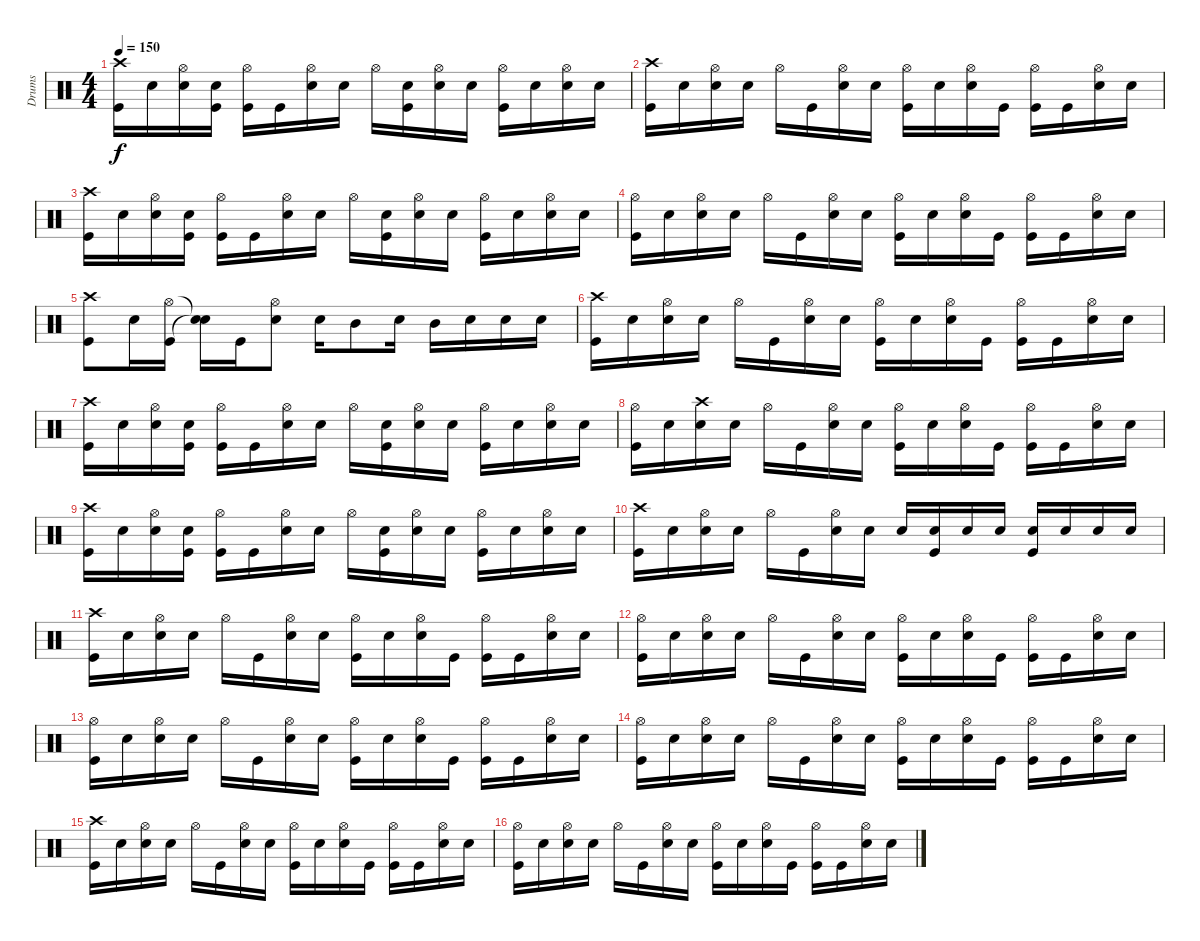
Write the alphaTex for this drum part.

\track ("Drums" "Drums") {instrument percussion}
\staff {score}
\articulation defaults
\ts (4 4)
\tempo 150
\clef neutral
\ks c
("Crash high (hit)" "Kick (hit)").16{dy f} "Snare (hit)".16 ("Hi-Hat (open)" "Snare (hit) 2").16 ("Snare (hit)" "Kick (hit)").16 ("Hi-Hat (open)" "Kick (hit)").16 "Kick (hit)".16 ("Hi-Hat (open)" "Snare (hit) 2").16 "Snare (hit)".16 "Hi-Hat (open)".16 ("Snare (hit)" "Kick (hit)").16 ("Hi-Hat (open)" "Snare (hit) 2").16 "Snare (hit)".16 ("Hi-Hat (open)" "Kick (hit)").16 "Snare (hit)".16 ("Hi-Hat (open)" "Snare (hit) 2").16 "Snare (hit)".16 |
("Crash high (hit)" "Kick (hit)").16 "Snare (hit)".16 ("Hi-Hat (open)" "Snare (hit) 2").16 "Snare (hit)".16 "Hi-Hat (open)".16 "Kick (hit)".16 ("Hi-Hat (open)" "Snare (hit) 2").16 "Snare (hit)".16 ("Hi-Hat (open)" "Kick (hit)").16 "Snare (hit)".16 ("Hi-Hat (open)" "Snare (hit) 2").16 "Kick (hit)".16 ("Hi-Hat (open)" "Kick (hit)").16 "Kick (hit)".16 ("Hi-Hat (open)" "Snare (hit) 2").16 "Snare (hit)".16 |
("Crash high (hit)" "Kick (hit)").16 "Snare (hit)".16 ("Hi-Hat (open)" "Snare (hit) 2").16 ("Snare (hit)" "Kick (hit)").16 ("Hi-Hat (open)" "Kick (hit)").16 "Kick (hit)".16 ("Hi-Hat (open)" "Snare (hit) 2").16 "Snare (hit)".16 "Hi-Hat (open)".16 ("Snare (hit)" "Kick (hit)").16 ("Hi-Hat (open)" "Snare (hit) 2").16 "Snare (hit)".16 ("Hi-Hat (open)" "Kick (hit)").16 "Snare (hit)".16 ("Hi-Hat (open)" "Snare (hit) 2").16 "Snare (hit)".16 |
("Hi-Hat (open)" "Kick (hit)").16 "Snare (hit)".16 ("Hi-Hat (open)" "Snare (hit) 2").16 "Snare (hit)".16 "Hi-Hat (open)".16 "Kick (hit)".16 ("Hi-Hat (open)" "Snare (hit) 2").16 "Snare (hit)".16 ("Hi-Hat (open)" "Kick (hit)").16 "Snare (hit)".16 ("Hi-Hat (open)" "Snare (hit) 2").16 "Kick (hit)".16 ("Hi-Hat (open)" "Kick (hit)").16 "Kick (hit)".16 ("Hi-Hat (open)" "Snare (hit) 2").16 "Snare (hit)".16 |
("Crash high (hit)" "Kick (hit)").8 "Snare (hit) 2".16 ("Hi-Hat (open)" "Kick (hit)").16 ("Snare (hit)"{t} "Snare (hit)"{t}).16 "Kick (hit)".16 ("Hi-Hat (open)" "Snare (hit) 2").8 "Snare (hit) 2".16 "Mid Tom (hit)".8 "Snare (hit) 2".16 "Mid Tom (hit)".16 "Snare (hit) 2".16 "Snare (hit) 2".16 "Snare (hit) 2".16 |
("Crash high (hit)" "Kick (hit)").16 "Snare (hit)".16 ("Hi-Hat (open)" "Snare (hit) 2").16 "Snare (hit)".16 "Hi-Hat (open)".16 "Kick (hit)".16 ("Hi-Hat (open)" "Snare (hit) 2").16 "Snare (hit)".16 ("Hi-Hat (open)" "Kick (hit)").16 "Snare (hit)".16 ("Hi-Hat (open)" "Snare (hit) 2").16 "Kick (hit)".16 ("Hi-Hat (open)" "Kick (hit)").16 "Kick (hit)".16 ("Hi-Hat (open)" "Snare (hit) 2").16 "Snare (hit)".16 |
("Crash high (hit)" "Kick (hit)").16 "Snare (hit)".16 ("Hi-Hat (open)" "Snare (hit) 2").16 ("Snare (hit)" "Kick (hit)").16 ("Hi-Hat (open)" "Kick (hit)").16 "Kick (hit)".16 ("Hi-Hat (open)" "Snare (hit) 2").16 "Snare (hit)".16 "Hi-Hat (open)".16 ("Snare (hit)" "Kick (hit)").16 ("Hi-Hat (open)" "Snare (hit) 2").16 "Snare (hit)".16 ("Hi-Hat (open)" "Kick (hit)").16 "Snare (hit)".16 ("Hi-Hat (open)" "Snare (hit) 2").16 "Snare (hit)".16 |
("Hi-Hat (open)" "Kick (hit)").16 "Snare (hit)".16 ("Crash high (hit)" "Snare (hit) 2").16 "Snare (hit)".16 "Hi-Hat (open)".16 "Kick (hit)".16 ("Hi-Hat (open)" "Snare (hit) 2").16 "Snare (hit)".16 ("Hi-Hat (open)" "Kick (hit)").16 "Snare (hit)".16 ("Hi-Hat (open)" "Snare (hit) 2").16 "Kick (hit)".16 ("Hi-Hat (open)" "Kick (hit)").16 "Kick (hit)".16 ("Hi-Hat (open)" "Snare (hit) 2").16 "Snare (hit)".16 |
("Crash high (hit)" "Kick (hit)").16 "Snare (hit)".16 ("Hi-Hat (open)" "Snare (hit) 2").16 ("Snare (hit)" "Kick (hit)").16 ("Hi-Hat (open)" "Kick (hit)").16 "Kick (hit)".16 ("Hi-Hat (open)" "Snare (hit) 2").16 "Snare (hit)".16 "Hi-Hat (open)".16 ("Snare (hit)" "Kick (hit)").16 ("Hi-Hat (open)" "Snare (hit) 2").16 "Snare (hit)".16 ("Hi-Hat (open)" "Kick (hit)").16 "Snare (hit)".16 ("Hi-Hat (open)" "Snare (hit) 2").16 "Snare (hit)".16 |
("Crash high (hit)" "Kick (hit)").16 "Snare (hit)".16 ("Hi-Hat (open)" "Snare (hit) 2").16 "Snare (hit)".16 "Hi-Hat (open)".16 "Kick (hit)".16 ("Hi-Hat (open)" "Snare (hit) 2").16 "Snare (hit)".16 "Snare (hit) 2".16 ("Snare (hit)" "Kick (hit)").16 "Snare (hit) 2".16 "Snare (hit)".16 ("Snare (hit) 2" "Kick (hit)").16 "Snare (hit)".16 "Snare (hit) 2".16 "Snare (hit)".16 |
("Crash high (hit)" "Kick (hit)").16 "Snare (hit)".16 ("Hi-Hat (open)" "Snare (hit) 2").16 "Snare (hit)".16 "Hi-Hat (open)".16 "Kick (hit)".16 ("Hi-Hat (open)" "Snare (hit) 2").16 "Snare (hit)".16 ("Hi-Hat (open)" "Kick (hit)").16 "Snare (hit)".16 ("Hi-Hat (open)" "Snare (hit) 2").16 "Kick (hit)".16 ("Hi-Hat (open)" "Kick (hit)").16 "Kick (hit)".16 ("Hi-Hat (open)" "Snare (hit) 2").16 "Snare (hit)".16 |
("Hi-Hat (open)" "Kick (hit)").16 "Snare (hit)".16 ("Hi-Hat (open)" "Snare (hit) 2").16 "Snare (hit)".16 "Hi-Hat (open)".16 "Kick (hit)".16 ("Hi-Hat (open)" "Snare (hit) 2").16 "Snare (hit)".16 ("Hi-Hat (open)" "Kick (hit)").16 "Snare (hit)".16 ("Hi-Hat (open)" "Snare (hit) 2").16 "Kick (hit)".16 ("Hi-Hat (open)" "Kick (hit)").16 "Kick (hit)".16 ("Hi-Hat (open)" "Snare (hit) 2").16 "Snare (hit)".16 |
("Hi-Hat (open)" "Kick (hit)").16 "Snare (hit)".16 ("Hi-Hat (open)" "Snare (hit) 2").16 "Snare (hit)".16 "Hi-Hat (open)".16 "Kick (hit)".16 ("Hi-Hat (open)" "Snare (hit) 2").16 "Snare (hit)".16 ("Hi-Hat (open)" "Kick (hit)").16 "Snare (hit)".16 ("Hi-Hat (open)" "Snare (hit) 2").16 "Kick (hit)".16 ("Hi-Hat (open)" "Kick (hit)").16 "Kick (hit)".16 ("Hi-Hat (open)" "Snare (hit) 2").16 "Snare (hit)".16 |
("Hi-Hat (open)" "Kick (hit)").16 "Snare (hit)".16 ("Hi-Hat (open)" "Snare (hit) 2").16 "Snare (hit)".16 "Hi-Hat (open)".16 "Kick (hit)".16 ("Hi-Hat (open)" "Snare (hit) 2").16 "Snare (hit)".16 ("Hi-Hat (open)" "Kick (hit)").16 "Snare (hit)".16 ("Hi-Hat (open)" "Snare (hit) 2").16 "Kick (hit)".16 ("Hi-Hat (open)" "Kick (hit)").16 "Kick (hit)".16 ("Hi-Hat (open)" "Snare (hit) 2").16 "Snare (hit)".16 |
("Crash high (hit)" "Kick (hit)").16 "Snare (hit)".16 ("Hi-Hat (open)" "Snare (hit) 2").16 "Snare (hit)".16 "Hi-Hat (open)".16 "Kick (hit)".16 ("Hi-Hat (open)" "Snare (hit) 2").16 "Snare (hit)".16 ("Hi-Hat (open)" "Kick (hit)").16 "Snare (hit)".16 ("Hi-Hat (open)" "Snare (hit) 2").16 "Kick (hit)".16 ("Hi-Hat (open)" "Kick (hit)").16 "Kick (hit)".16 ("Hi-Hat (open)" "Snare (hit) 2").16 "Snare (hit)".16 |
("Hi-Hat (open)" "Kick (hit)").16 "Snare (hit)".16 ("Hi-Hat (open)" "Snare (hit) 2").16 "Snare (hit)".16 "Hi-Hat (open)".16 "Kick (hit)".16 ("Hi-Hat (open)" "Snare (hit) 2").16 "Snare (hit)".16 ("Hi-Hat (open)" "Kick (hit)").16 "Snare (hit)".16 ("Hi-Hat (open)" "Snare (hit) 2").16 "Kick (hit)".16 ("Hi-Hat (open)" "Kick (hit)").16 "Kick (hit)".16 ("Hi-Hat (open)" "Snare (hit) 2").16 "Snare (hit)".16
